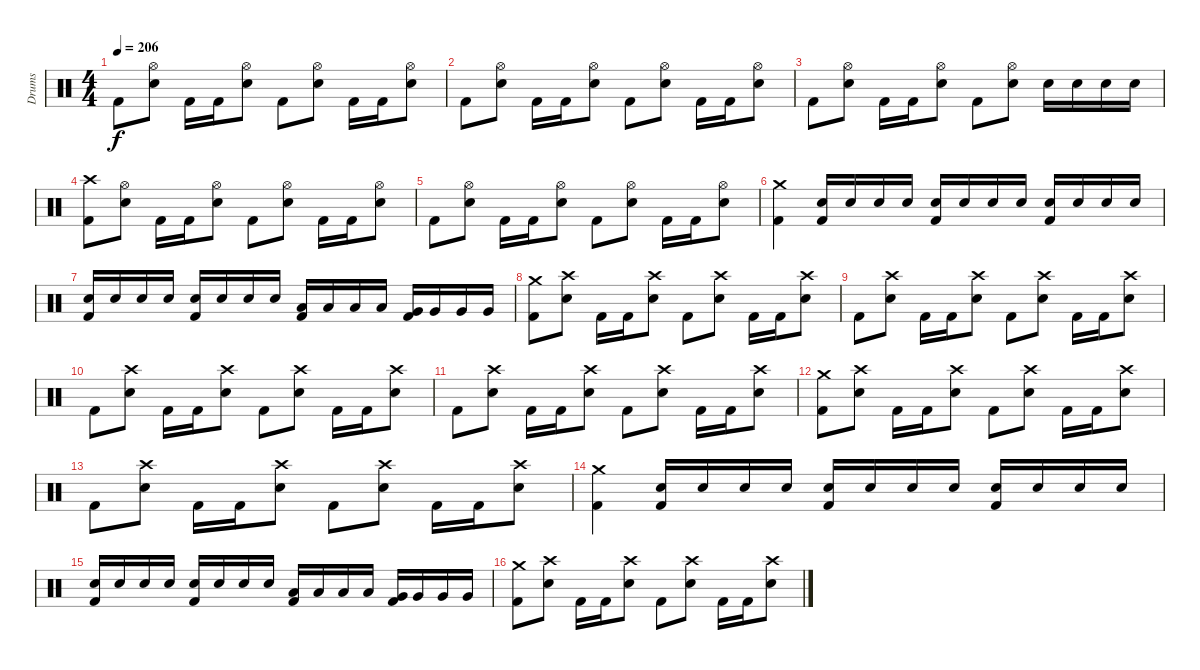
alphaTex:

\track ("Drums" "Drums") {instrument percussion}
\staff {score}
\articulation defaults
\ts (4 4)
\tempo 206
\clef neutral
\ks c "Kick (hit) 2".8{dy f}
("Hi-Hat (open)" "Electric Snare (hit)").8 "Kick (hit) 2".16 "Kick (hit) 2".16 ("Hi-Hat (open)" "Electric Snare (hit)").8 "Kick (hit) 2".8 ("Hi-Hat (open)" "Electric Snare (hit)").8 "Kick (hit) 2".16 "Kick (hit) 2".16 ("Hi-Hat (open)" "Electric Snare (hit)").8 |
"Kick (hit) 2".8 ("Hi-Hat (open)" "Electric Snare (hit)").8 "Kick (hit) 2".16 "Kick (hit) 2".16 ("Hi-Hat (open)" "Electric Snare (hit)").8 "Kick (hit) 2".8 ("Hi-Hat (open)" "Electric Snare (hit)").8 "Kick (hit) 2".16 "Kick (hit) 2".16 ("Hi-Hat (open)" "Electric Snare (hit)").8 |
"Kick (hit) 2".8 ("Hi-Hat (open)" "Electric Snare (hit)").8 "Kick (hit) 2".16 "Kick (hit) 2".16 ("Hi-Hat (open)" "Electric Snare (hit)").8 "Kick (hit) 2".8 ("Hi-Hat (open)" "Electric Snare (hit)").8 "Electric Snare (hit)".16 "Electric Snare (hit)".16 "Electric Snare (hit)".16 "Electric Snare (hit)".16 |
("Crash high (hit)" "Kick (hit) 2").8 ("Hi-Hat (open)" "Electric Snare (hit)").8 "Kick (hit) 2".16 "Kick (hit) 2".16 ("Hi-Hat (open)" "Electric Snare (hit)").8 "Kick (hit) 2".8 ("Hi-Hat (open)" "Electric Snare (hit)").8 "Kick (hit) 2".16 "Kick (hit) 2".16 ("Hi-Hat (open)" "Electric Snare (hit)").8 |
"Kick (hit) 2".8 ("Hi-Hat (open)" "Electric Snare (hit)").8 "Kick (hit) 2".16 "Kick (hit) 2".16 ("Hi-Hat (open)" "Electric Snare (hit)").8 "Kick (hit) 2".8 ("Hi-Hat (open)" "Electric Snare (hit)").8 "Kick (hit) 2".16 "Kick (hit) 2".16 ("Hi-Hat (open)" "Electric Snare (hit)").8 |
("Crash medium (hit)" "Kick (hit) 2").4 ("Electric Snare (hit)" "Kick (hit) 2").16 "Electric Snare (hit)".16 "Electric Snare (hit)".16 "Electric Snare (hit)".16 ("Electric Snare (hit)" "Kick (hit) 2").16 "Electric Snare (hit)".16 "Electric Snare (hit)".16 "Electric Snare (hit)".16 ("Electric Snare (hit)" "Kick (hit) 2").16 "Electric Snare (hit)".16 "Electric Snare (hit)".16 "Electric Snare (hit)".16 |
("Electric Snare (hit)" "Kick (hit) 2").16 "Electric Snare (hit)".16 "Electric Snare (hit)".16 "Electric Snare (hit)".16 ("Electric Snare (hit)" "Kick (hit) 2").16 "Electric Snare (hit)".16 "Electric Snare (hit)".16 "Electric Snare (hit)".16 ("Low Tom (hit)" "Kick (hit) 2").16 "Low Tom (hit)".16 "Low Tom (hit)".16 "Low Tom (hit)".16 ("Very Low Tom (hit)" "Kick (hit) 2").16 "Very Low Tom (hit)".16 "Very Low Tom (hit)".16 "Very Low Tom (hit)".16 |
("Crash medium (hit)" "Kick (hit) 2").8 ("Crash high (hit)" "Electric Snare (hit)").8 "Kick (hit) 2".16 "Kick (hit) 2".16 ("Crash high (hit)" "Electric Snare (hit)").8 "Kick (hit) 2".8 ("Crash high (hit)" "Electric Snare (hit)").8 "Kick (hit) 2".16 "Kick (hit) 2".16 ("Crash high (hit)" "Electric Snare (hit)").8 |
"Kick (hit) 2".8 ("Crash high (hit)" "Electric Snare (hit)").8 "Kick (hit) 2".16 "Kick (hit) 2".16 ("Crash high (hit)" "Electric Snare (hit)").8 "Kick (hit) 2".8 ("Crash high (hit)" "Electric Snare (hit)").8 "Kick (hit) 2".16 "Kick (hit) 2".16 ("Crash high (hit)" "Electric Snare (hit)").8 |
"Kick (hit) 2".8 ("Crash high (hit)" "Electric Snare (hit)").8 "Kick (hit) 2".16 "Kick (hit) 2".16 ("Crash high (hit)" "Electric Snare (hit)").8 "Kick (hit) 2".8 ("Crash high (hit)" "Electric Snare (hit)").8 "Kick (hit) 2".16 "Kick (hit) 2".16 ("Crash high (hit)" "Electric Snare (hit)").8 |
"Kick (hit) 2".8 ("Crash high (hit)" "Electric Snare (hit)").8 "Kick (hit) 2".16 "Kick (hit) 2".16 ("Crash high (hit)" "Electric Snare (hit)").8 "Kick (hit) 2".8 ("Crash high (hit)" "Electric Snare (hit)").8 "Kick (hit) 2".16 "Kick (hit) 2".16 ("Crash high (hit)" "Electric Snare (hit)").8 |
("Crash medium (hit)" "Kick (hit) 2").8 ("Crash high (hit)" "Electric Snare (hit)").8 "Kick (hit) 2".16 "Kick (hit) 2".16 ("Crash high (hit)" "Electric Snare (hit)").8 "Kick (hit) 2".8 ("Crash high (hit)" "Electric Snare (hit)").8 "Kick (hit) 2".16 "Kick (hit) 2".16 ("Crash high (hit)" "Electric Snare (hit)").8 |
"Kick (hit) 2".8 ("Crash high (hit)" "Electric Snare (hit)").8 "Kick (hit) 2".16 "Kick (hit) 2".16 ("Crash high (hit)" "Electric Snare (hit)").8 "Kick (hit) 2".8 ("Crash high (hit)" "Electric Snare (hit)").8 "Kick (hit) 2".16 "Kick (hit) 2".16 ("Crash high (hit)" "Electric Snare (hit)").8 |
("Crash medium (hit)" "Kick (hit) 2").4 ("Electric Snare (hit)" "Kick (hit) 2").16 "Electric Snare (hit)".16 "Electric Snare (hit)".16 "Electric Snare (hit)".16 ("Electric Snare (hit)" "Kick (hit) 2").16 "Electric Snare (hit)".16 "Electric Snare (hit)".16 "Electric Snare (hit)".16 ("Electric Snare (hit)" "Kick (hit) 2").16 "Electric Snare (hit)".16 "Electric Snare (hit)".16 "Electric Snare (hit)".16 |
("Electric Snare (hit)" "Kick (hit) 2").16 "Electric Snare (hit)".16 "Electric Snare (hit)".16 "Electric Snare (hit)".16 ("Electric Snare (hit)" "Kick (hit) 2").16 "Electric Snare (hit)".16 "Electric Snare (hit)".16 "Electric Snare (hit)".16 ("Low Tom (hit)" "Kick (hit) 2").16 "Low Tom (hit)".16 "Low Tom (hit)".16 "Low Tom (hit)".16 ("Very Low Tom (hit)" "Kick (hit) 2").16 "Very Low Tom (hit)".16 "Very Low Tom (hit)".16 "Very Low Tom (hit)".16 |
("Crash medium (hit)" "Kick (hit) 2").8 ("Crash high (hit)" "Electric Snare (hit)").8 "Kick (hit) 2".16 "Kick (hit) 2".16 ("Crash high (hit)" "Electric Snare (hit)").8 "Kick (hit) 2".8 ("Crash high (hit)" "Electric Snare (hit)").8 "Kick (hit) 2".16 "Kick (hit) 2".16 ("Crash high (hit)" "Electric Snare (hit)").8
